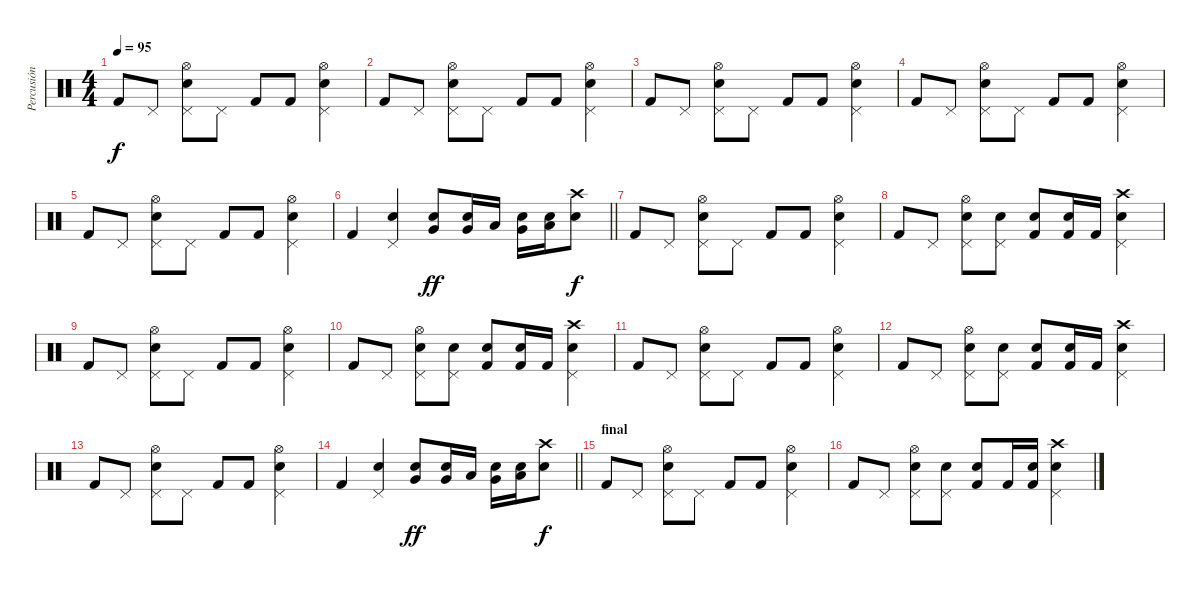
\track ("Percusión" "Percusión") {instrument percussion}
\staff {score}
\articulation defaults
\ts (4 4)
\tempo 95
\clef neutral
\ks c "Kick (hit) 2".8{dy f} "Pedal Hi-Hat (hit)".8
("Snare (hit) 2" "Pedal Hi-Hat (hit)" "Hi-Hat (open)").8 "Pedal Hi-Hat (hit)".8 "Kick (hit) 2".8 "Kick (hit) 2".8 ("Snare (hit) 2" "Pedal Hi-Hat (hit)" "Hi-Hat (open)").4 |
"Kick (hit) 2".8 "Pedal Hi-Hat (hit)".8 ("Snare (hit) 2" "Pedal Hi-Hat (hit)" "Hi-Hat (open)").8 "Pedal Hi-Hat (hit)".8 "Kick (hit) 2".8 "Kick (hit) 2".8 ("Snare (hit) 2" "Pedal Hi-Hat (hit)" "Hi-Hat (open)").4 |
"Kick (hit) 2".8 "Pedal Hi-Hat (hit)".8 ("Snare (hit) 2" "Pedal Hi-Hat (hit)" "Hi-Hat (open)").8 "Pedal Hi-Hat (hit)".8 "Kick (hit) 2".8 "Kick (hit) 2".8 ("Snare (hit) 2" "Pedal Hi-Hat (hit)" "Hi-Hat (open)").4 |
"Kick (hit) 2".8 "Pedal Hi-Hat (hit)".8 ("Snare (hit) 2" "Pedal Hi-Hat (hit)" "Hi-Hat (open)").8 "Pedal Hi-Hat (hit)".8 "Kick (hit) 2".8 "Kick (hit) 2".8 ("Snare (hit) 2" "Pedal Hi-Hat (hit)" "Hi-Hat (open)").4 |
"Kick (hit) 2".8 "Pedal Hi-Hat (hit)".8 ("Snare (hit) 2" "Pedal Hi-Hat (hit)" "Hi-Hat (open)").8 "Pedal Hi-Hat (hit)".8 "Kick (hit) 2".8 "Kick (hit) 2".8 ("Snare (hit) 2" "Pedal Hi-Hat (hit)" "Hi-Hat (open)").4 |
\barLineRight lightlight "Kick (hit) 2".4
("Snare (hit) 2" "Pedal Hi-Hat (hit)").4 ("Very Low Tom (hit)" "Snare (hit) 2").8{dy ff} ("Very Low Tom (hit)" "Snare (hit) 2").16 "Low Tom (hit)".16 ("Very Low Tom (hit)" "Snare (hit) 2").16 ("Snare (hit) 2" "Low Floor Tom (hit)").16 ("Crash high (hit)" "Snare (hit) 2").8{dy f} |
\section ("" "")
"Kick (hit) 2".8 "Pedal Hi-Hat (hit)".8 ("Snare (hit) 2" "Pedal Hi-Hat (hit)" "Hi-Hat (open)").8 "Pedal Hi-Hat (hit)".8 "Kick (hit) 2".8 "Kick (hit) 2".8 ("Snare (hit) 2" "Pedal Hi-Hat (hit)" "Hi-Hat (open)").4 |
"Kick (hit) 2".8 "Pedal Hi-Hat (hit)".8 ("Snare (hit) 2" "Pedal Hi-Hat (hit)" "Hi-Hat (open)").8 ("Pedal Hi-Hat (hit)" "Snare (hit) 2").8 ("Kick (hit) 2" "Snare (hit) 2").8 ("Kick (hit) 2" "Snare (hit) 2").16 "Kick (hit) 2".16 ("Snare (hit) 2" "Pedal Hi-Hat (hit)" "Crash high (hit)").4 |
"Kick (hit) 2".8 "Pedal Hi-Hat (hit)".8 ("Snare (hit) 2" "Pedal Hi-Hat (hit)" "Hi-Hat (open)").8 "Pedal Hi-Hat (hit)".8 "Kick (hit) 2".8 "Kick (hit) 2".8 ("Snare (hit) 2" "Pedal Hi-Hat (hit)" "Hi-Hat (open)").4 |
"Kick (hit) 2".8 "Pedal Hi-Hat (hit)".8 ("Snare (hit) 2" "Pedal Hi-Hat (hit)" "Hi-Hat (open)").8 ("Pedal Hi-Hat (hit)" "Snare (hit) 2").8 ("Kick (hit) 2" "Snare (hit) 2").8 ("Kick (hit) 2" "Snare (hit) 2").16 "Kick (hit) 2".16 ("Snare (hit) 2" "Pedal Hi-Hat (hit)" "Crash high (hit)").4 |
"Kick (hit) 2".8 "Pedal Hi-Hat (hit)".8 ("Snare (hit) 2" "Pedal Hi-Hat (hit)" "Hi-Hat (open)").8 "Pedal Hi-Hat (hit)".8 "Kick (hit) 2".8 "Kick (hit) 2".8 ("Snare (hit) 2" "Pedal Hi-Hat (hit)" "Hi-Hat (open)").4 |
"Kick (hit) 2".8 "Pedal Hi-Hat (hit)".8 ("Snare (hit) 2" "Pedal Hi-Hat (hit)" "Hi-Hat (open)").8 ("Pedal Hi-Hat (hit)" "Snare (hit) 2").8 ("Kick (hit) 2" "Snare (hit) 2").8 ("Kick (hit) 2" "Snare (hit) 2").16 "Kick (hit) 2".16 ("Snare (hit) 2" "Pedal Hi-Hat (hit)" "Crash high (hit)").4 |
"Kick (hit) 2".8 "Pedal Hi-Hat (hit)".8 ("Snare (hit) 2" "Pedal Hi-Hat (hit)" "Hi-Hat (open)").8 "Pedal Hi-Hat (hit)".8 "Kick (hit) 2".8 "Kick (hit) 2".8 ("Snare (hit) 2" "Pedal Hi-Hat (hit)" "Hi-Hat (open)").4 |
\barLineRight lightlight "Kick (hit) 2".4
("Snare (hit) 2" "Pedal Hi-Hat (hit)").4 ("Very Low Tom (hit)" "Snare (hit) 2").8{dy ff} ("Very Low Tom (hit)" "Snare (hit) 2").16 "Low Tom (hit)".16 ("Very Low Tom (hit)" "Snare (hit) 2").16 ("Snare (hit) 2" "Low Floor Tom (hit)").16 ("Crash high (hit)" "Snare (hit) 2").8{dy f} |
\section ("" "final")
"Kick (hit) 2".8 "Pedal Hi-Hat (hit)".8 ("Snare (hit) 2" "Pedal Hi-Hat (hit)" "Hi-Hat (open)").8 "Pedal Hi-Hat (hit)".8 "Kick (hit) 2".8 "Kick (hit) 2".8 ("Snare (hit) 2" "Pedal Hi-Hat (hit)" "Hi-Hat (open)").4 |
"Kick (hit) 2".8 "Pedal Hi-Hat (hit)".8 ("Snare (hit) 2" "Pedal Hi-Hat (hit)" "Hi-Hat (open)").8 ("Pedal Hi-Hat (hit)" "Snare (hit) 2").8 ("Kick (hit) 2" "Snare (hit) 2").8 "Kick (hit) 2".16 ("Kick (hit) 2" "Snare (hit) 2").16 ("Snare (hit) 2" "Pedal Hi-Hat (hit)" "Crash high (hit)").4
